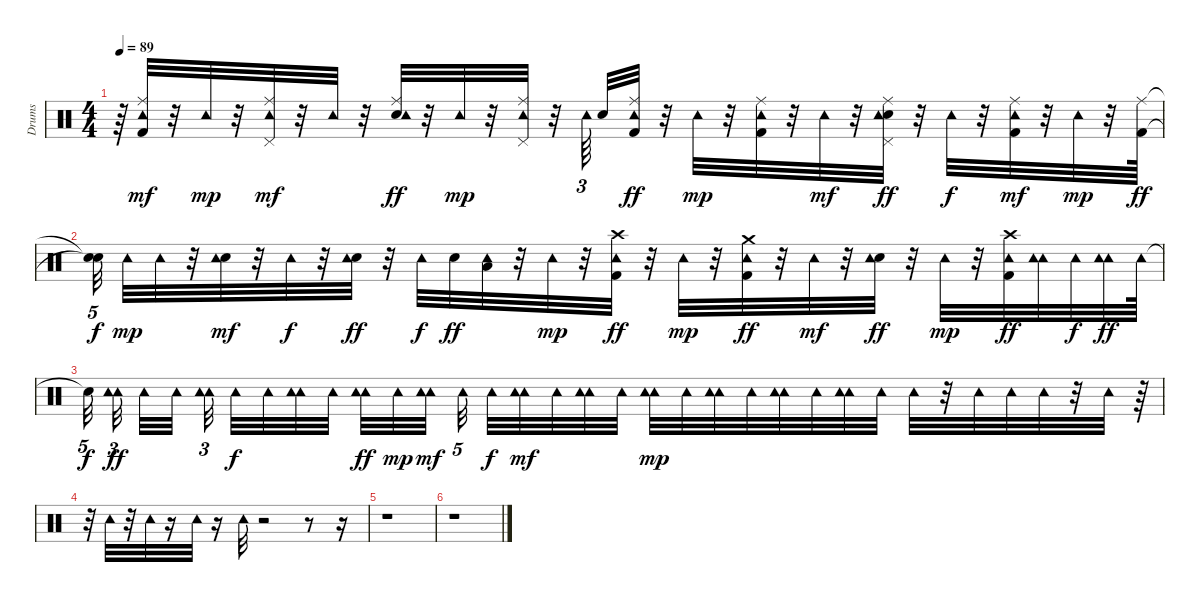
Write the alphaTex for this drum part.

\track ("Drums   " "Drums   ") {instrument percussion}
\staff {score}
\articulation defaults
\ts (4 4)
\tempo 89
\clef neutral
\ks c
r.64{dy mp} ("Kick (hit) 2" "Ride (middle)" "Tambourine (hit)").32{dy mf} r.32 "Tambourine (hit)".32{dy mp} r.32 ("Pedal Hi-Hat (hit)" "Ride (middle)" "Tambourine (hit)").32{dy mf} r.32 "Tambourine (hit)".32 r.32 ("Electric Snare (hit)" "Ride (middle)" "Tambourine (hit)").32{dy ff} r.32 "Tambourine (hit)".32{dy mp} r.32 ("Pedal Hi-Hat (hit)" "Ride (middle)" "Tambourine (hit)").32 r.32 "Tambourine (hit)".64{tu (3 2) beam splitsecondary} "Electric Snare (hit)".32 ("Kick (hit) 2" "Ride (middle)" "Tambourine (hit)").32{dy ff} r.32 "Tambourine (hit)".32{dy mp} r.32 ("Kick (hit) 2" "Ride (middle)" "Tambourine (hit)").32 r.32 "Tambourine (hit)".32{dy mf} r.32 ("Electric Snare (hit)" "Pedal Hi-Hat (hit)" "Ride (middle)" "Tambourine (hit)").32{dy ff} r.32 "Tambourine (hit)".32{dy f} r.32 ("Kick (hit) 2" "Ride (middle)" "Tambourine (hit)").32{dy mf} r.32 "Tambourine (hit)".32{dy mp} r.32 ("Kick (hit) 2" "Ride (middle)").64{dy ff} |
("Snare (hit)"{t} "Snare (hit)"{t}).32{tu (5 4) dy f beam splitsecondary} "Tambourine (hit)".32{dy mp} "Tambourine (hit)".32 r.32 ("Electric Snare (hit)" "Tambourine (hit)").32{dy mf} r.32 "Tambourine (hit)".32{dy f} r.32 ("Electric Snare (hit)" "Tambourine (hit)").32{dy ff} r.32 "Tambourine (hit)".32{dy f} "Electric Snare (hit)".32{dy ff} ("Low Tom (hit)" "Tambourine (hit)").32 r.32 "Tambourine (hit)".32{dy mp} r.32 ("Kick (hit) 2" "Crash high (hit)" "Tambourine (hit)").32{dy ff} r.32 "Tambourine (hit)".32{dy mp} r.32 ("Kick (hit) 2" "Crash medium (hit)" "Tambourine (hit)").32{dy ff} r.32 "Tambourine (hit)".32{dy mf} r.32 ("Electric Snare (hit)" "Tambourine (hit)").32{dy ff} r.32 "Tambourine (hit)".32{dy mp} r.32 ("Kick (hit) 2" "Crash high (hit)" "Tambourine (hit)").32{dy ff} ("Tambourine (hit)" "Tambourine (hit)").32 "Tambourine (hit)".32{dy f} ("Tambourine (hit)" "Tambourine (hit)").32{dy ff} "Tambourine (hit)".64 |
"Snare (hit)"{t}.32{tu (5 4) dy f} ("Tambourine (hit)" "Tambourine (hit)").32{tu (3 2) dy ff beam splitsecondary} "Tambourine (hit)".32 "Tambourine (hit)".32{beam splitsecondary} ("Tambourine (hit)" "Tambourine (hit)").32{tu (3 2) beam splitsecondary} "Tambourine (hit)".32{dy f} "Tambourine (hit)".32 ("Tambourine (hit)" "Tambourine (hit)").32 "Tambourine (hit)".32 ("Tambourine (hit)" "Tambourine (hit)").32{dy ff} "Tambourine (hit)".32{dy mp} ("Tambourine (hit)" "Tambourine (hit)").32{dy mf beam splitsecondary} "Tambourine (hit)".32{tu (5 4) beam splitsecondary} "Tambourine (hit)".32{dy f} ("Tambourine (hit)" "Tambourine (hit)").32{dy mf} "Tambourine (hit)".32 ("Tambourine (hit)" "Tambourine (hit)").32 "Tambourine (hit)".32 ("Tambourine (hit)" "Tambourine (hit)").32{dy mp} "Tambourine (hit)".32 ("Tambourine (hit)" "Tambourine (hit)").32 "Tambourine (hit)".32 ("Tambourine (hit)" "Tambourine (hit)").32 "Tambourine (hit)".32 ("Tambourine (hit)" "Tambourine (hit)").32 "Tambourine (hit)".32 "Tambourine (hit)".32 r.32 "Tambourine (hit)".32 "Tambourine (hit)".32 "Tambourine (hit)".32 r.32 "Tambourine (hit)".32 r.64 |
r.32 "Tambourine (hit)".32 r.32 "Tambourine (hit)".32 r.16 "Tambourine (hit)".32 r.16 "Tambourine (hit)".32 r.2 r.8 r.16 |
r.1 |
r.1
